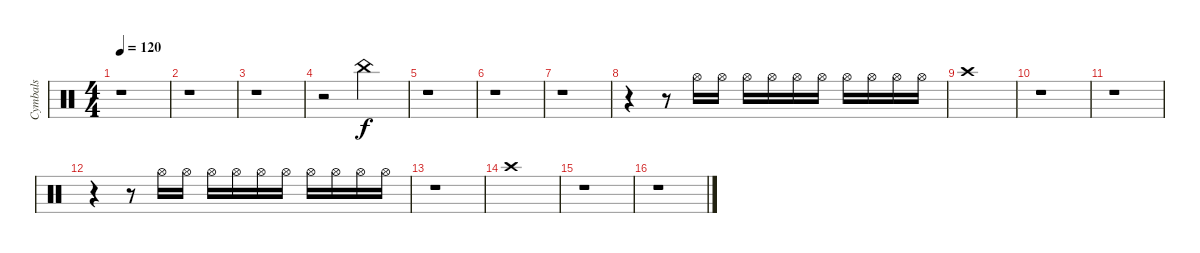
\track ("Cymbals" "Cymbals") {instrument percussion}
\staff {score}
\articulation defaults
\ts (4 4)
\tempo 120
\clef neutral
\ks c
r.1{dy f} |
r.1 |
r.1 |
r.2 "China (hit)".2 |
r.1 |
r.1 |
r.1 |
r.4 r.8 "Hi-Hat (open)".16 "Hi-Hat (open)".16 "Hi-Hat (open)".16 "Hi-Hat (open)".16 "Hi-Hat (open)".16 "Hi-Hat (open)".16 "Hi-Hat (open)".16 "Hi-Hat (open)".16 "Hi-Hat (open)".16 "Hi-Hat (open)".16 |
"Crash high (hit)".1 |
r.1 |
r.1 |
r.4 r.8 "Hi-Hat (open)".16 "Hi-Hat (open)".16 "Hi-Hat (open)".16 "Hi-Hat (open)".16 "Hi-Hat (open)".16 "Hi-Hat (open)".16 "Hi-Hat (open)".16 "Hi-Hat (open)".16 "Hi-Hat (open)".16 "Hi-Hat (open)".16 |
r.1 |
"Crash high (hit)".1 |
r.1 |
r.1
